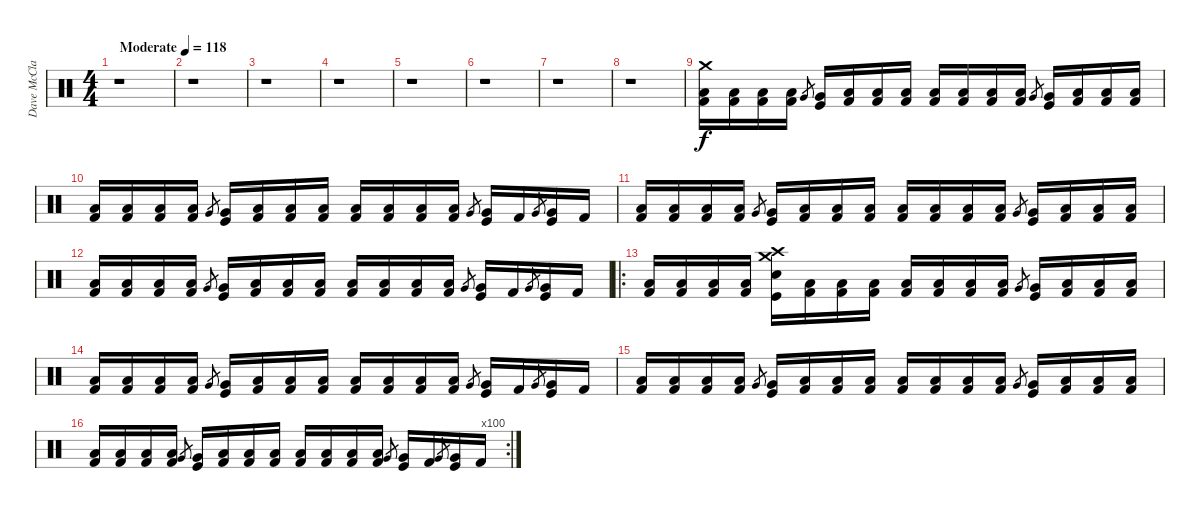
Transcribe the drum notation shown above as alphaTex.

\track ("Dave McClain" "Dave McCla") {instrument percussion}
\staff {score}
\articulation defaults
\ts (4 4)
\tempo (118 "Moderate")
\clef neutral
\ks c
r.1{dy f} |
r.1 |
r.1 |
r.1 |
r.1 |
r.1 |
r.1 |
r.1 |
("Kick (hit) 2" "Low Floor Tom (hit)" "Crash medium (hit)").16 ("Kick (hit) 2" "Low Floor Tom (hit)").16 ("Kick (hit) 2" "Low Floor Tom (hit)").16 ("Kick (hit) 2" "Low Floor Tom (hit)").16 "Very Low Tom (hit)".8{gr} ("Kick (hit)" "Very Low Tom (hit)").16 ("Kick (hit) 2" "Low Floor Tom (hit)").16 ("Kick (hit) 2" "Low Floor Tom (hit)").16 ("Kick (hit) 2" "Low Floor Tom (hit)").16 ("Kick (hit) 2" "Low Floor Tom (hit)").16 ("Kick (hit) 2" "Low Floor Tom (hit)").16 ("Kick (hit) 2" "Low Floor Tom (hit)").16 ("Kick (hit) 2" "Low Floor Tom (hit)").16 "Very Low Tom (hit)".8{gr} ("Kick (hit)" "Very Low Tom (hit)").16 ("Kick (hit) 2" "Low Floor Tom (hit)").16 ("Kick (hit) 2" "Low Floor Tom (hit)").16 ("Kick (hit) 2" "Low Floor Tom (hit)").16 |
("Kick (hit) 2" "Low Floor Tom (hit)").16 ("Kick (hit) 2" "Low Floor Tom (hit)").16 ("Kick (hit) 2" "Low Floor Tom (hit)").16 ("Kick (hit) 2" "Low Floor Tom (hit)").16 "Very Low Tom (hit)".8{gr} ("Kick (hit)" "Very Low Tom (hit)").16 ("Kick (hit) 2" "Low Floor Tom (hit)").16 ("Kick (hit) 2" "Low Floor Tom (hit)").16 ("Kick (hit) 2" "Low Floor Tom (hit)").16 ("Kick (hit) 2" "Low Floor Tom (hit)").16 ("Kick (hit) 2" "Low Floor Tom (hit)").16 ("Kick (hit) 2" "Low Floor Tom (hit)").16 ("Kick (hit) 2" "Low Floor Tom (hit)").16 "Very Low Tom (hit)".8{gr} ("Kick (hit)" "Very Low Tom (hit)").16 "Kick (hit) 2".16 "Very Low Tom (hit)".8{gr} ("Kick (hit)" "Very Low Tom (hit)").16 "Kick (hit) 2".16 |
("Kick (hit) 2" "Low Floor Tom (hit)").16 ("Kick (hit) 2" "Low Floor Tom (hit)").16 ("Kick (hit) 2" "Low Floor Tom (hit)").16 ("Kick (hit) 2" "Low Floor Tom (hit)").16 "Very Low Tom (hit)".8{gr} ("Kick (hit)" "Very Low Tom (hit)").16 ("Kick (hit) 2" "Low Floor Tom (hit)").16 ("Kick (hit) 2" "Low Floor Tom (hit)").16 ("Kick (hit) 2" "Low Floor Tom (hit)").16 ("Kick (hit) 2" "Low Floor Tom (hit)").16 ("Kick (hit) 2" "Low Floor Tom (hit)").16 ("Kick (hit) 2" "Low Floor Tom (hit)").16 ("Kick (hit) 2" "Low Floor Tom (hit)").16 "Very Low Tom (hit)".8{gr} ("Kick (hit)" "Very Low Tom (hit)").16 ("Kick (hit) 2" "Low Floor Tom (hit)").16 ("Kick (hit) 2" "Low Floor Tom (hit)").16 ("Kick (hit) 2" "Low Floor Tom (hit)").16 |
("Kick (hit) 2" "Low Floor Tom (hit)").16 ("Kick (hit) 2" "Low Floor Tom (hit)").16 ("Kick (hit) 2" "Low Floor Tom (hit)").16 ("Kick (hit) 2" "Low Floor Tom (hit)").16 "Very Low Tom (hit)".8{gr} ("Kick (hit)" "Very Low Tom (hit)").16 ("Kick (hit) 2" "Low Floor Tom (hit)").16 ("Kick (hit) 2" "Low Floor Tom (hit)").16 ("Kick (hit) 2" "Low Floor Tom (hit)").16 ("Kick (hit) 2" "Low Floor Tom (hit)").16 ("Kick (hit) 2" "Low Floor Tom (hit)").16 ("Kick (hit) 2" "Low Floor Tom (hit)").16 ("Kick (hit) 2" "Low Floor Tom (hit)").16 "Very Low Tom (hit)".8{gr} ("Kick (hit)" "Very Low Tom (hit)").16 "Kick (hit) 2".16 "Very Low Tom (hit)".8{gr} ("Kick (hit)" "Very Low Tom (hit)").16 "Kick (hit) 2".16 |
\ro
("Kick (hit) 2" "Low Floor Tom (hit)").16 ("Kick (hit) 2" "Low Floor Tom (hit)").16 ("Kick (hit) 2" "Low Floor Tom (hit)").16 ("Kick (hit) 2" "Low Floor Tom (hit)").16 ("Kick (hit)" "Snare (hit) 2" "Crash medium (hit)" "Crash high (hit)").16 ("Kick (hit) 2" "Low Floor Tom (hit)").16 ("Kick (hit) 2" "Low Floor Tom (hit)").16 ("Kick (hit) 2" "Low Floor Tom (hit)").16 ("Kick (hit) 2" "Low Floor Tom (hit)").16 ("Kick (hit) 2" "Low Floor Tom (hit)").16 ("Kick (hit) 2" "Low Floor Tom (hit)").16 ("Kick (hit) 2" "Low Floor Tom (hit)").16 "Very Low Tom (hit)".8{gr} ("Kick (hit)" "Very Low Tom (hit)").16 ("Kick (hit) 2" "Low Floor Tom (hit)").16 ("Kick (hit) 2" "Low Floor Tom (hit)").16 ("Kick (hit) 2" "Low Floor Tom (hit)").16 |
("Kick (hit) 2" "Low Floor Tom (hit)").16 ("Kick (hit) 2" "Low Floor Tom (hit)").16 ("Kick (hit) 2" "Low Floor Tom (hit)").16 ("Kick (hit) 2" "Low Floor Tom (hit)").16 "Very Low Tom (hit)".8{gr} ("Kick (hit)" "Very Low Tom (hit)").16 ("Kick (hit) 2" "Low Floor Tom (hit)").16 ("Kick (hit) 2" "Low Floor Tom (hit)").16 ("Kick (hit) 2" "Low Floor Tom (hit)").16 ("Kick (hit) 2" "Low Floor Tom (hit)").16 ("Kick (hit) 2" "Low Floor Tom (hit)").16 ("Kick (hit) 2" "Low Floor Tom (hit)").16 ("Kick (hit) 2" "Low Floor Tom (hit)").16 "Very Low Tom (hit)".8{gr} ("Kick (hit)" "Very Low Tom (hit)").16 "Kick (hit) 2".16 "Very Low Tom (hit)".8{gr} ("Kick (hit)" "Very Low Tom (hit)").16 "Kick (hit) 2".16 |
("Kick (hit) 2" "Low Floor Tom (hit)").16 ("Kick (hit) 2" "Low Floor Tom (hit)").16 ("Kick (hit) 2" "Low Floor Tom (hit)").16 ("Kick (hit) 2" "Low Floor Tom (hit)").16 "Very Low Tom (hit)".8{gr} ("Kick (hit)" "Very Low Tom (hit)").16 ("Kick (hit) 2" "Low Floor Tom (hit)").16 ("Kick (hit) 2" "Low Floor Tom (hit)").16 ("Kick (hit) 2" "Low Floor Tom (hit)").16 ("Kick (hit) 2" "Low Floor Tom (hit)").16 ("Kick (hit) 2" "Low Floor Tom (hit)").16 ("Kick (hit) 2" "Low Floor Tom (hit)").16 ("Kick (hit) 2" "Low Floor Tom (hit)").16 "Very Low Tom (hit)".8{gr} ("Kick (hit)" "Very Low Tom (hit)").16 ("Kick (hit) 2" "Low Floor Tom (hit)").16 ("Kick (hit) 2" "Low Floor Tom (hit)").16 ("Kick (hit) 2" "Low Floor Tom (hit)").16 |
\rc 100
("Kick (hit) 2" "Low Floor Tom (hit)").16 ("Kick (hit) 2" "Low Floor Tom (hit)").16 ("Kick (hit) 2" "Low Floor Tom (hit)").16 ("Kick (hit) 2" "Low Floor Tom (hit)").16 "Very Low Tom (hit)".8{gr} ("Kick (hit)" "Very Low Tom (hit)").16 ("Kick (hit) 2" "Low Floor Tom (hit)").16 ("Kick (hit) 2" "Low Floor Tom (hit)").16 ("Kick (hit) 2" "Low Floor Tom (hit)").16 ("Kick (hit) 2" "Low Floor Tom (hit)").16 ("Kick (hit) 2" "Low Floor Tom (hit)").16 ("Kick (hit) 2" "Low Floor Tom (hit)").16 ("Kick (hit) 2" "Low Floor Tom (hit)").16 "Very Low Tom (hit)".8{gr} ("Kick (hit)" "Very Low Tom (hit)").16 "Kick (hit) 2".16 "Very Low Tom (hit)".8{gr} ("Kick (hit)" "Very Low Tom (hit)").16 "Kick (hit) 2".16
